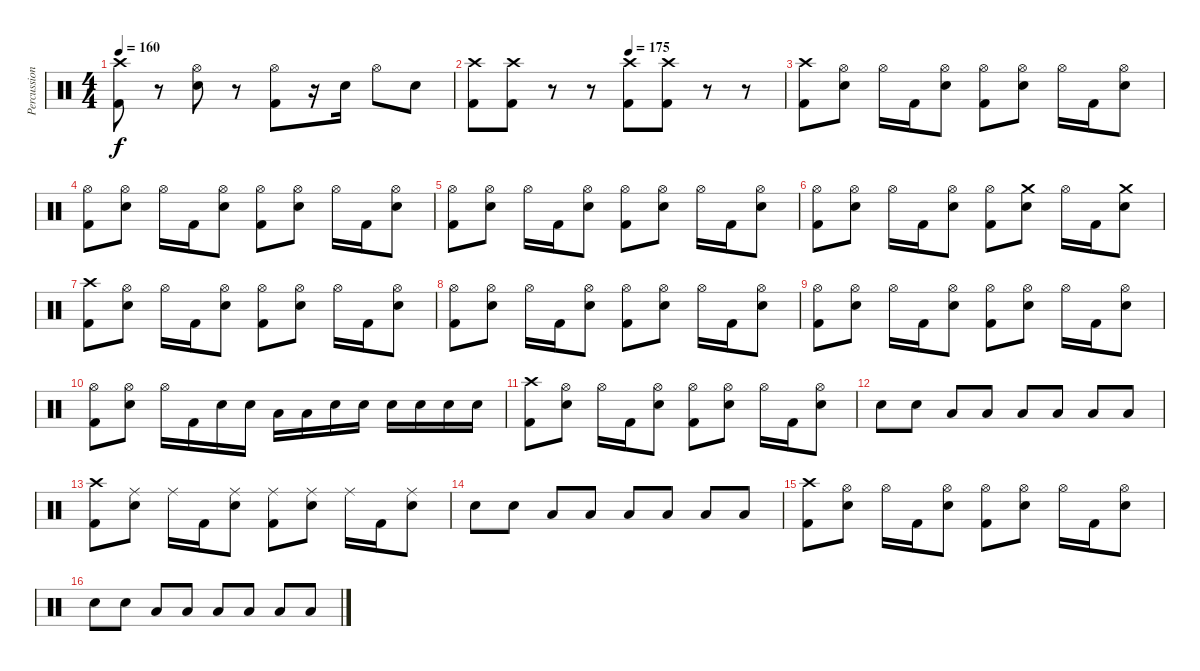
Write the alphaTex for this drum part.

\track ("Percussion" "Percussion") {instrument percussion}
\staff {score}
\articulation defaults
\ts (4 4)
\tempo 160
\clef neutral
\ks c
("Crash high (hit)" "Kick (hit) 2").8{dy f} r.8 ("Hi-Hat (open)" "Snare (hit) 2").8 r.8 ("Hi-Hat (open)" "Kick (hit) 2").8 r.16 "Snare (hit) 2".16 "Hi-Hat (open)".8 "Snare (hit) 2".8 |
\tempo (175 0.5)
("Crash high (hit)" "Kick (hit) 2").8 ("Crash high (hit)" "Kick (hit) 2").8 r.8 r.8 ("Crash high (hit)" "Kick (hit) 2").8 ("Crash high (hit)" "Kick (hit) 2").8 r.8 r.8 |
("Crash high (hit)" "Kick (hit) 2").8 ("Hi-Hat (open)" "Snare (hit) 2").8 "Hi-Hat (open)".16 "Kick (hit) 2".16 ("Hi-Hat (open)" "Snare (hit) 2").8 ("Hi-Hat (open)" "Kick (hit) 2").8 ("Hi-Hat (open)" "Snare (hit) 2").8 "Hi-Hat (open)".16 "Kick (hit) 2".16 ("Hi-Hat (open)" "Snare (hit) 2").8 |
("Hi-Hat (open)" "Kick (hit) 2").8 ("Hi-Hat (open)" "Snare (hit) 2").8 "Hi-Hat (open)".16 "Kick (hit) 2".16 ("Hi-Hat (open)" "Snare (hit) 2").8 ("Hi-Hat (open)" "Kick (hit) 2").8 ("Hi-Hat (open)" "Snare (hit) 2").8 "Hi-Hat (open)".16 "Kick (hit) 2".16 ("Hi-Hat (open)" "Snare (hit) 2").8 |
("Hi-Hat (open)" "Kick (hit) 2").8 ("Hi-Hat (open)" "Snare (hit) 2").8 "Hi-Hat (open)".16 "Kick (hit) 2".16 ("Hi-Hat (open)" "Snare (hit) 2").8 ("Hi-Hat (open)" "Kick (hit) 2").8 ("Hi-Hat (open)" "Snare (hit) 2").8 "Hi-Hat (open)".16 "Kick (hit) 2".16 ("Hi-Hat (open)" "Snare (hit) 2").8 |
("Hi-Hat (open)" "Kick (hit) 2").8 ("Hi-Hat (open)" "Snare (hit) 2").8 "Hi-Hat (open)".16 "Kick (hit) 2".16 ("Hi-Hat (open)" "Snare (hit) 2").8 ("Hi-Hat (open)" "Kick (hit) 2").8 ("Crash medium (hit)" "Snare (hit) 2").8 "Hi-Hat (open)".16 "Kick (hit) 2".16 ("Crash medium (hit)" "Snare (hit) 2").8 |
("Crash high (hit)" "Kick (hit) 2").8 ("Hi-Hat (open)" "Snare (hit) 2").8 "Hi-Hat (open)".16 "Kick (hit) 2".16 ("Hi-Hat (open)" "Snare (hit) 2").8 ("Hi-Hat (open)" "Kick (hit) 2").8 ("Hi-Hat (open)" "Snare (hit) 2").8 "Hi-Hat (open)".16 "Kick (hit) 2".16 ("Hi-Hat (open)" "Snare (hit) 2").8 |
("Hi-Hat (open)" "Kick (hit) 2").8 ("Hi-Hat (open)" "Snare (hit) 2").8 "Hi-Hat (open)".16 "Kick (hit) 2".16 ("Hi-Hat (open)" "Snare (hit) 2").8 ("Hi-Hat (open)" "Kick (hit) 2").8 ("Hi-Hat (open)" "Snare (hit) 2").8 "Hi-Hat (open)".16 "Kick (hit) 2".16 ("Hi-Hat (open)" "Snare (hit) 2").8 |
("Hi-Hat (open)" "Kick (hit) 2").8 ("Hi-Hat (open)" "Snare (hit) 2").8 "Hi-Hat (open)".16 "Kick (hit) 2".16 ("Hi-Hat (open)" "Snare (hit) 2").8 ("Hi-Hat (open)" "Kick (hit) 2").8 ("Hi-Hat (open)" "Snare (hit) 2").8 "Hi-Hat (open)".16 "Kick (hit) 2".16 ("Hi-Hat (open)" "Snare (hit) 2").8 |
("Hi-Hat (open)" "Kick (hit) 2").8 ("Hi-Hat (open)" "Snare (hit) 2").8 "Hi-Hat (open)".16 "Kick (hit) 2".16 "Snare (hit) 2".16 "Snare (hit) 2".16 "Low Floor Tom (hit)".16 "Low Floor Tom (hit)".16 "Snare (hit) 2".16 "Snare (hit) 2".16 "Snare (hit) 2".16 "Snare (hit) 2".16 "Snare (hit) 2".16 "Snare (hit) 2".16 |
("Crash high (hit)" "Kick (hit) 2").8 ("Hi-Hat (open)" "Snare (hit) 2").8 "Hi-Hat (open)".16 "Kick (hit) 2".16 ("Hi-Hat (open)" "Snare (hit) 2").8 ("Hi-Hat (open)" "Kick (hit) 2").8 ("Hi-Hat (open)" "Snare (hit) 2").8 "Hi-Hat (open)".16 "Kick (hit) 2".16 ("Hi-Hat (open)" "Snare (hit) 2").8 |
"Snare (hit) 2".8 "Snare (hit) 2".8 "Low Tom (hit)".8 "Low Tom (hit)".8 "Low Floor Tom (hit)".8 "Low Floor Tom (hit)".8 "Low Floor Tom (hit)".8 "Low Floor Tom (hit)".8 |
("Crash high (hit)" "Kick (hit) 2").8 ("Ride (middle)" "Snare (hit) 2").8 "Ride (middle)".16 "Kick (hit) 2".16 ("Ride (middle)" "Snare (hit) 2").8 ("Ride (middle)" "Kick (hit) 2").8 ("Ride (middle)" "Snare (hit) 2").8 "Ride (middle)".16 "Kick (hit) 2".16 ("Ride (middle)" "Snare (hit) 2").8 |
"Snare (hit) 2".8 "Snare (hit) 2".8 "Low Tom (hit)".8 "Low Tom (hit)".8 "Low Floor Tom (hit)".8 "Low Floor Tom (hit)".8 "Low Floor Tom (hit)".8 "Low Floor Tom (hit)".8 |
("Crash high (hit)" "Kick (hit) 2").8 ("Hi-Hat (open)" "Snare (hit) 2").8 "Hi-Hat (open)".16 "Kick (hit) 2".16 ("Hi-Hat (open)" "Snare (hit) 2").8 ("Hi-Hat (open)" "Kick (hit) 2").8 ("Hi-Hat (open)" "Snare (hit) 2").8 "Hi-Hat (open)".16 "Kick (hit) 2".16 ("Hi-Hat (open)" "Snare (hit) 2").8 |
"Snare (hit) 2".8 "Snare (hit) 2".8 "Low Tom (hit)".8 "Low Tom (hit)".8 "Low Floor Tom (hit)".8 "Low Floor Tom (hit)".8 "Low Floor Tom (hit)".8 "Low Floor Tom (hit)".8
